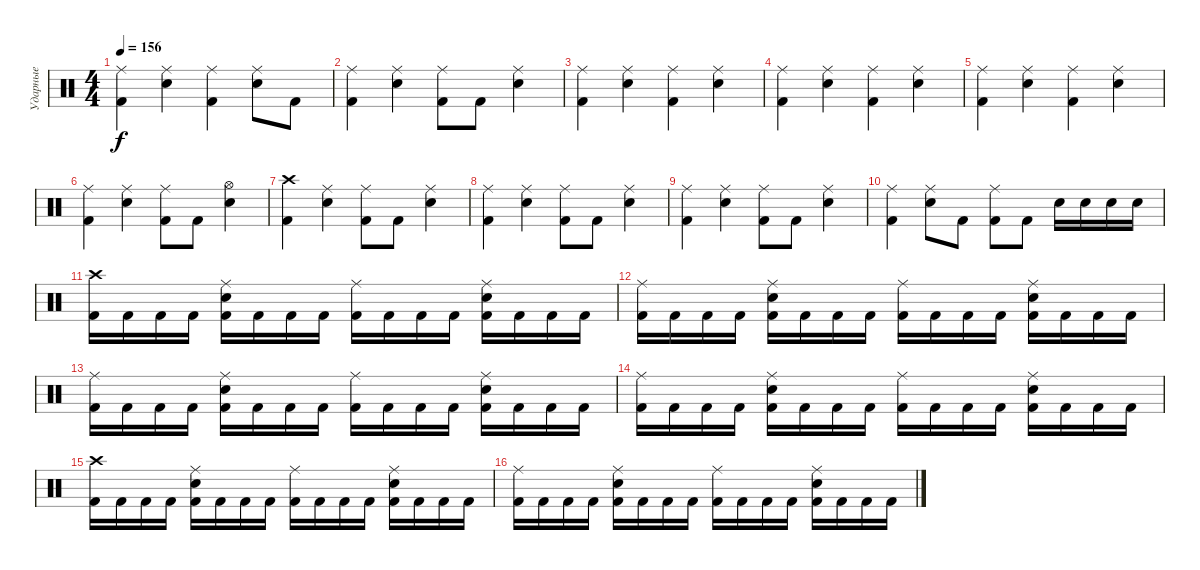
\track ("Ударные" "Ударные") {instrument percussion}
\staff {score}
\articulation defaults
\ts (4 4)
\tempo 156
\clef neutral
\ks c
("Ride (middle)" "Kick (hit) 2").4{dy f} ("Ride (middle)" "Electric Snare (hit)").4 ("Ride (middle)" "Kick (hit) 2").4 ("Ride (middle)" "Electric Snare (hit)").8 "Kick (hit) 2".8 |
("Ride (middle)" "Kick (hit) 2").4 ("Ride (middle)" "Electric Snare (hit)").4 ("Ride (middle)" "Kick (hit) 2").8 "Kick (hit) 2".8 ("Ride (middle)" "Electric Snare (hit)").4 |
("Ride (middle)" "Kick (hit) 2").4 ("Ride (middle)" "Electric Snare (hit)").4 ("Ride (middle)" "Kick (hit) 2").4 ("Ride (middle)" "Electric Snare (hit)").4 |
("Ride (middle)" "Kick (hit) 2").4 ("Ride (middle)" "Electric Snare (hit)").4 ("Ride (middle)" "Kick (hit) 2").4 ("Ride (middle)" "Electric Snare (hit)").4 |
("Ride (middle)" "Kick (hit) 2").4 ("Ride (middle)" "Electric Snare (hit)").4 ("Ride (middle)" "Kick (hit) 2").4 ("Ride (middle)" "Electric Snare (hit)").4 |
("Ride (middle)" "Kick (hit) 2").4 ("Ride (middle)" "Electric Snare (hit)").4 ("Ride (middle)" "Kick (hit) 2").8 "Kick (hit) 2".8 ("Hi-Hat (open)" "Electric Snare (hit)").4 |
("Crash high (hit)" "Kick (hit) 2").4 ("Ride (middle)" "Electric Snare (hit)").4 ("Ride (middle)" "Kick (hit) 2").8 "Kick (hit) 2".8 ("Ride (middle)" "Electric Snare (hit)").4 |
("Ride (middle)" "Kick (hit) 2").4 ("Ride (middle)" "Electric Snare (hit)").4 ("Ride (middle)" "Kick (hit) 2").8 "Kick (hit) 2".8 ("Ride (middle)" "Electric Snare (hit)").4 |
("Ride (middle)" "Kick (hit) 2").4 ("Ride (middle)" "Electric Snare (hit)").4 ("Ride (middle)" "Kick (hit) 2").8 "Kick (hit) 2".8 ("Ride (middle)" "Electric Snare (hit)").4 |
("Ride (middle)" "Kick (hit) 2").4 ("Ride (middle)" "Electric Snare (hit)").8 "Kick (hit) 2".8 ("Ride (middle)" "Kick (hit) 2").8 "Kick (hit) 2".8 "Electric Snare (hit)".16 "Electric Snare (hit)".16 "Electric Snare (hit)".16 "Electric Snare (hit)".16 |
("Crash high (hit)" "Kick (hit) 2").16 "Kick (hit) 2".16 "Kick (hit) 2".16 "Kick (hit) 2".16 ("Ride (middle)" "Electric Snare (hit)" "Kick (hit) 2").16 "Kick (hit) 2".16 "Kick (hit) 2".16 "Kick (hit) 2".16 ("Ride (middle)" "Kick (hit) 2").16 "Kick (hit) 2".16 "Kick (hit) 2".16 "Kick (hit) 2".16 ("Ride (middle)" "Electric Snare (hit)" "Kick (hit) 2").16 "Kick (hit) 2".16 "Kick (hit) 2".16 "Kick (hit) 2".16 |
("Ride (middle)" "Kick (hit) 2").16 "Kick (hit) 2".16 "Kick (hit) 2".16 "Kick (hit) 2".16 ("Ride (middle)" "Electric Snare (hit)" "Kick (hit) 2").16 "Kick (hit) 2".16 "Kick (hit) 2".16 "Kick (hit) 2".16 ("Ride (middle)" "Kick (hit) 2").16 "Kick (hit) 2".16 "Kick (hit) 2".16 "Kick (hit) 2".16 ("Ride (middle)" "Electric Snare (hit)" "Kick (hit) 2").16 "Kick (hit) 2".16 "Kick (hit) 2".16 "Kick (hit) 2".16 |
("Ride (middle)" "Kick (hit) 2").16 "Kick (hit) 2".16 "Kick (hit) 2".16 "Kick (hit) 2".16 ("Ride (middle)" "Electric Snare (hit)" "Kick (hit) 2").16 "Kick (hit) 2".16 "Kick (hit) 2".16 "Kick (hit) 2".16 ("Ride (middle)" "Kick (hit) 2").16 "Kick (hit) 2".16 "Kick (hit) 2".16 "Kick (hit) 2".16 ("Ride (middle)" "Electric Snare (hit)" "Kick (hit) 2").16 "Kick (hit) 2".16 "Kick (hit) 2".16 "Kick (hit) 2".16 |
("Ride (middle)" "Kick (hit) 2").16 "Kick (hit) 2".16 "Kick (hit) 2".16 "Kick (hit) 2".16 ("Ride (middle)" "Electric Snare (hit)" "Kick (hit) 2").16 "Kick (hit) 2".16 "Kick (hit) 2".16 "Kick (hit) 2".16 ("Ride (middle)" "Kick (hit) 2").16 "Kick (hit) 2".16 "Kick (hit) 2".16 "Kick (hit) 2".16 ("Ride (middle)" "Electric Snare (hit)" "Kick (hit) 2").16 "Kick (hit) 2".16 "Kick (hit) 2".16 "Kick (hit) 2".16 |
("Crash high (hit)" "Kick (hit) 2").16 "Kick (hit) 2".16 "Kick (hit) 2".16 "Kick (hit) 2".16 ("Ride (middle)" "Electric Snare (hit)" "Kick (hit) 2").16 "Kick (hit) 2".16 "Kick (hit) 2".16 "Kick (hit) 2".16 ("Ride (middle)" "Kick (hit) 2").16 "Kick (hit) 2".16 "Kick (hit) 2".16 "Kick (hit) 2".16 ("Ride (middle)" "Electric Snare (hit)" "Kick (hit) 2").16 "Kick (hit) 2".16 "Kick (hit) 2".16 "Kick (hit) 2".16 |
("Ride (middle)" "Kick (hit) 2").16 "Kick (hit) 2".16 "Kick (hit) 2".16 "Kick (hit) 2".16 ("Ride (middle)" "Electric Snare (hit)" "Kick (hit) 2").16 "Kick (hit) 2".16 "Kick (hit) 2".16 "Kick (hit) 2".16 ("Ride (middle)" "Kick (hit) 2").16 "Kick (hit) 2".16 "Kick (hit) 2".16 "Kick (hit) 2".16 ("Ride (middle)" "Electric Snare (hit)" "Kick (hit) 2").16 "Kick (hit) 2".16 "Kick (hit) 2".16 "Kick (hit) 2".16
